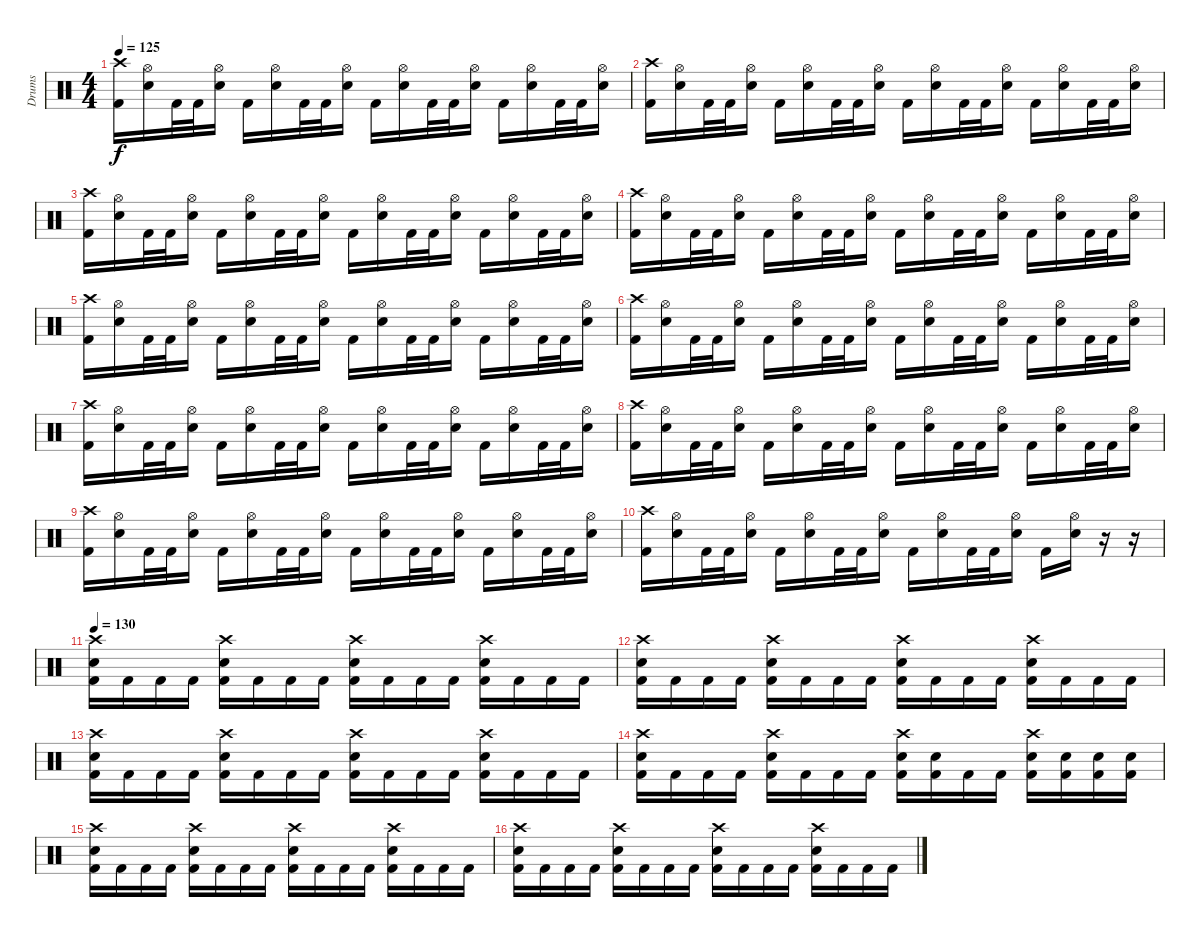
\track ("Drums" "Drums") {instrument percussion}
\staff {score}
\articulation defaults
\ts (4 4)
\tempo 125
\clef neutral
\ks c
("Crash high (hit)" "Kick (hit) 2").16{dy f} ("Hi-Hat (open)" "Electric Snare (hit)").16 "Kick (hit) 2".32 "Kick (hit) 2".32 ("Hi-Hat (open)" "Electric Snare (hit)").16 "Kick (hit) 2".16 ("Hi-Hat (open)" "Electric Snare (hit)").16 "Kick (hit) 2".32 "Kick (hit) 2".32 ("Hi-Hat (open)" "Electric Snare (hit)").16 "Kick (hit) 2".16 ("Hi-Hat (open)" "Electric Snare (hit)").16 "Kick (hit) 2".32 "Kick (hit) 2".32 ("Hi-Hat (open)" "Electric Snare (hit)").16 "Kick (hit) 2".16 ("Hi-Hat (open)" "Electric Snare (hit)").16 "Kick (hit) 2".32 "Kick (hit) 2".32 ("Hi-Hat (open)" "Electric Snare (hit)").16 |
("Crash high (hit)" "Kick (hit) 2").16 ("Hi-Hat (open)" "Electric Snare (hit)").16 "Kick (hit) 2".32 "Kick (hit) 2".32 ("Hi-Hat (open)" "Electric Snare (hit)").16 "Kick (hit) 2".16 ("Hi-Hat (open)" "Electric Snare (hit)").16 "Kick (hit) 2".32 "Kick (hit) 2".32 ("Hi-Hat (open)" "Electric Snare (hit)").16 "Kick (hit) 2".16 ("Hi-Hat (open)" "Electric Snare (hit)").16 "Kick (hit) 2".32 "Kick (hit) 2".32 ("Hi-Hat (open)" "Electric Snare (hit)").16 "Kick (hit) 2".16 ("Hi-Hat (open)" "Electric Snare (hit)").16 "Kick (hit) 2".32 "Kick (hit) 2".32 ("Hi-Hat (open)" "Electric Snare (hit)").16 |
("Crash high (hit)" "Kick (hit) 2").16 ("Hi-Hat (open)" "Electric Snare (hit)").16 "Kick (hit) 2".32 "Kick (hit) 2".32 ("Hi-Hat (open)" "Electric Snare (hit)").16 "Kick (hit) 2".16 ("Hi-Hat (open)" "Electric Snare (hit)").16 "Kick (hit) 2".32 "Kick (hit) 2".32 ("Hi-Hat (open)" "Electric Snare (hit)").16 "Kick (hit) 2".16 ("Hi-Hat (open)" "Electric Snare (hit)").16 "Kick (hit) 2".32 "Kick (hit) 2".32 ("Hi-Hat (open)" "Electric Snare (hit)").16 "Kick (hit) 2".16 ("Hi-Hat (open)" "Electric Snare (hit)").16 "Kick (hit) 2".32 "Kick (hit) 2".32 ("Hi-Hat (open)" "Electric Snare (hit)").16 |
("Crash high (hit)" "Kick (hit) 2").16 ("Hi-Hat (open)" "Electric Snare (hit)").16 "Kick (hit) 2".32 "Kick (hit) 2".32 ("Hi-Hat (open)" "Electric Snare (hit)").16 "Kick (hit) 2".16 ("Hi-Hat (open)" "Electric Snare (hit)").16 "Kick (hit) 2".32 "Kick (hit) 2".32 ("Hi-Hat (open)" "Electric Snare (hit)").16 "Kick (hit) 2".16 ("Hi-Hat (open)" "Electric Snare (hit)").16 "Kick (hit) 2".32 "Kick (hit) 2".32 ("Hi-Hat (open)" "Electric Snare (hit)").16 "Kick (hit) 2".16 ("Hi-Hat (open)" "Electric Snare (hit)").16 "Kick (hit) 2".32 "Kick (hit) 2".32 ("Hi-Hat (open)" "Electric Snare (hit)").16 |
("Crash high (hit)" "Kick (hit) 2").16 ("Hi-Hat (open)" "Electric Snare (hit)").16 "Kick (hit) 2".32 "Kick (hit) 2".32 ("Hi-Hat (open)" "Electric Snare (hit)").16 "Kick (hit) 2".16 ("Hi-Hat (open)" "Electric Snare (hit)").16 "Kick (hit) 2".32 "Kick (hit) 2".32 ("Hi-Hat (open)" "Electric Snare (hit)").16 "Kick (hit) 2".16 ("Hi-Hat (open)" "Electric Snare (hit)").16 "Kick (hit) 2".32 "Kick (hit) 2".32 ("Hi-Hat (open)" "Electric Snare (hit)").16 "Kick (hit) 2".16 ("Hi-Hat (open)" "Electric Snare (hit)").16 "Kick (hit) 2".32 "Kick (hit) 2".32 ("Hi-Hat (open)" "Electric Snare (hit)").16 |
("Crash high (hit)" "Kick (hit) 2").16 ("Hi-Hat (open)" "Electric Snare (hit)").16 "Kick (hit) 2".32 "Kick (hit) 2".32 ("Hi-Hat (open)" "Electric Snare (hit)").16 "Kick (hit) 2".16 ("Hi-Hat (open)" "Electric Snare (hit)").16 "Kick (hit) 2".32 "Kick (hit) 2".32 ("Hi-Hat (open)" "Electric Snare (hit)").16 "Kick (hit) 2".16 ("Hi-Hat (open)" "Electric Snare (hit)").16 "Kick (hit) 2".32 "Kick (hit) 2".32 ("Hi-Hat (open)" "Electric Snare (hit)").16 "Kick (hit) 2".16 ("Hi-Hat (open)" "Electric Snare (hit)").16 "Kick (hit) 2".32 "Kick (hit) 2".32 ("Hi-Hat (open)" "Electric Snare (hit)").16 |
("Crash high (hit)" "Kick (hit) 2").16 ("Hi-Hat (open)" "Electric Snare (hit)").16 "Kick (hit) 2".32 "Kick (hit) 2".32 ("Hi-Hat (open)" "Electric Snare (hit)").16 "Kick (hit) 2".16 ("Hi-Hat (open)" "Electric Snare (hit)").16 "Kick (hit) 2".32 "Kick (hit) 2".32 ("Hi-Hat (open)" "Electric Snare (hit)").16 "Kick (hit) 2".16 ("Hi-Hat (open)" "Electric Snare (hit)").16 "Kick (hit) 2".32 "Kick (hit) 2".32 ("Hi-Hat (open)" "Electric Snare (hit)").16 "Kick (hit) 2".16 ("Hi-Hat (open)" "Electric Snare (hit)").16 "Kick (hit) 2".32 "Kick (hit) 2".32 ("Hi-Hat (open)" "Electric Snare (hit)").16 |
("Crash high (hit)" "Kick (hit) 2").16 ("Hi-Hat (open)" "Electric Snare (hit)").16 "Kick (hit) 2".32 "Kick (hit) 2".32 ("Hi-Hat (open)" "Electric Snare (hit)").16 "Kick (hit) 2".16 ("Hi-Hat (open)" "Electric Snare (hit)").16 "Kick (hit) 2".32 "Kick (hit) 2".32 ("Hi-Hat (open)" "Electric Snare (hit)").16 "Kick (hit) 2".16 ("Hi-Hat (open)" "Electric Snare (hit)").16 "Kick (hit) 2".32 "Kick (hit) 2".32 ("Hi-Hat (open)" "Electric Snare (hit)").16 "Kick (hit) 2".16 ("Hi-Hat (open)" "Electric Snare (hit)").16 "Kick (hit) 2".32 "Kick (hit) 2".32 ("Hi-Hat (open)" "Electric Snare (hit)").16 |
("Crash high (hit)" "Kick (hit) 2").16 ("Hi-Hat (open)" "Electric Snare (hit)").16 "Kick (hit) 2".32 "Kick (hit) 2".32 ("Hi-Hat (open)" "Electric Snare (hit)").16 "Kick (hit) 2".16 ("Hi-Hat (open)" "Electric Snare (hit)").16 "Kick (hit) 2".32 "Kick (hit) 2".32 ("Hi-Hat (open)" "Electric Snare (hit)").16 "Kick (hit) 2".16 ("Hi-Hat (open)" "Electric Snare (hit)").16 "Kick (hit) 2".32 "Kick (hit) 2".32 ("Hi-Hat (open)" "Electric Snare (hit)").16 "Kick (hit) 2".16 ("Hi-Hat (open)" "Electric Snare (hit)").16 "Kick (hit) 2".32 "Kick (hit) 2".32 ("Hi-Hat (open)" "Electric Snare (hit)").16 |
("Crash high (hit)" "Kick (hit) 2").16 ("Hi-Hat (open)" "Electric Snare (hit)").16 "Kick (hit) 2".32 "Kick (hit) 2".32 ("Hi-Hat (open)" "Electric Snare (hit)").16 "Kick (hit) 2".16 ("Hi-Hat (open)" "Electric Snare (hit)").16 "Kick (hit) 2".32 "Kick (hit) 2".32 ("Hi-Hat (open)" "Electric Snare (hit)").16 "Kick (hit) 2".16 ("Hi-Hat (open)" "Electric Snare (hit)").16 "Kick (hit) 2".32 "Kick (hit) 2".32 ("Hi-Hat (open)" "Electric Snare (hit)").16 "Kick (hit) 2".16 ("Hi-Hat (open)" "Electric Snare (hit)").16 r.16 r.16 |
\tempo 130
("Crash high (hit)" "Electric Snare (hit)" "Kick (hit) 2").16 "Kick (hit) 2".16 "Kick (hit) 2".16 "Kick (hit) 2".16 ("Crash high (hit)" "Electric Snare (hit)" "Kick (hit) 2").16 "Kick (hit) 2".16 "Kick (hit) 2".16 "Kick (hit) 2".16 ("Crash high (hit)" "Electric Snare (hit)" "Kick (hit) 2").16 "Kick (hit) 2".16 "Kick (hit) 2".16 "Kick (hit) 2".16 ("Crash high (hit)" "Electric Snare (hit)" "Kick (hit) 2").16 "Kick (hit) 2".16 "Kick (hit) 2".16 "Kick (hit) 2".16 |
("Crash high (hit)" "Electric Snare (hit)" "Kick (hit) 2").16 "Kick (hit) 2".16 "Kick (hit) 2".16 "Kick (hit) 2".16 ("Crash high (hit)" "Electric Snare (hit)" "Kick (hit) 2").16 "Kick (hit) 2".16 "Kick (hit) 2".16 "Kick (hit) 2".16 ("Crash high (hit)" "Electric Snare (hit)" "Kick (hit) 2").16 "Kick (hit) 2".16 "Kick (hit) 2".16 "Kick (hit) 2".16 ("Crash high (hit)" "Electric Snare (hit)" "Kick (hit) 2").16 "Kick (hit) 2".16 "Kick (hit) 2".16 "Kick (hit) 2".16 |
("Crash high (hit)" "Electric Snare (hit)" "Kick (hit) 2").16 "Kick (hit) 2".16 "Kick (hit) 2".16 "Kick (hit) 2".16 ("Crash high (hit)" "Electric Snare (hit)" "Kick (hit) 2").16 "Kick (hit) 2".16 "Kick (hit) 2".16 "Kick (hit) 2".16 ("Crash high (hit)" "Electric Snare (hit)" "Kick (hit) 2").16 "Kick (hit) 2".16 "Kick (hit) 2".16 "Kick (hit) 2".16 ("Crash high (hit)" "Electric Snare (hit)" "Kick (hit) 2").16 "Kick (hit) 2".16 "Kick (hit) 2".16 "Kick (hit) 2".16 |
("Crash high (hit)" "Electric Snare (hit)" "Kick (hit) 2").16 "Kick (hit) 2".16 "Kick (hit) 2".16 "Kick (hit) 2".16 ("Crash high (hit)" "Electric Snare (hit)" "Kick (hit) 2").16 "Kick (hit) 2".16 "Kick (hit) 2".16 "Kick (hit) 2".16 ("Crash high (hit)" "Electric Snare (hit)" "Kick (hit) 2").16 ("Electric Snare (hit)" "Kick (hit) 2").16 "Kick (hit) 2".16 "Kick (hit) 2".16 ("Crash high (hit)" "Electric Snare (hit)" "Kick (hit) 2").16 ("Electric Snare (hit)" "Kick (hit) 2").16 ("Electric Snare (hit)" "Kick (hit) 2").16 ("Electric Snare (hit)" "Kick (hit) 2").16 |
("Crash high (hit)" "Electric Snare (hit)" "Kick (hit) 2").16 "Kick (hit) 2".16 "Kick (hit) 2".16 "Kick (hit) 2".16 ("Crash high (hit)" "Electric Snare (hit)" "Kick (hit) 2").16 "Kick (hit) 2".16 "Kick (hit) 2".16 "Kick (hit) 2".16 ("Crash high (hit)" "Electric Snare (hit)" "Kick (hit) 2").16 "Kick (hit) 2".16 "Kick (hit) 2".16 "Kick (hit) 2".16 ("Crash high (hit)" "Electric Snare (hit)" "Kick (hit) 2").16 "Kick (hit) 2".16 "Kick (hit) 2".16 "Kick (hit) 2".16 |
("Crash high (hit)" "Electric Snare (hit)" "Kick (hit) 2").16 "Kick (hit) 2".16 "Kick (hit) 2".16 "Kick (hit) 2".16 ("Crash high (hit)" "Electric Snare (hit)" "Kick (hit) 2").16 "Kick (hit) 2".16 "Kick (hit) 2".16 "Kick (hit) 2".16 ("Crash high (hit)" "Electric Snare (hit)" "Kick (hit) 2").16 "Kick (hit) 2".16 "Kick (hit) 2".16 "Kick (hit) 2".16 ("Crash high (hit)" "Electric Snare (hit)" "Kick (hit) 2").16 "Kick (hit) 2".16 "Kick (hit) 2".16 "Kick (hit) 2".16
